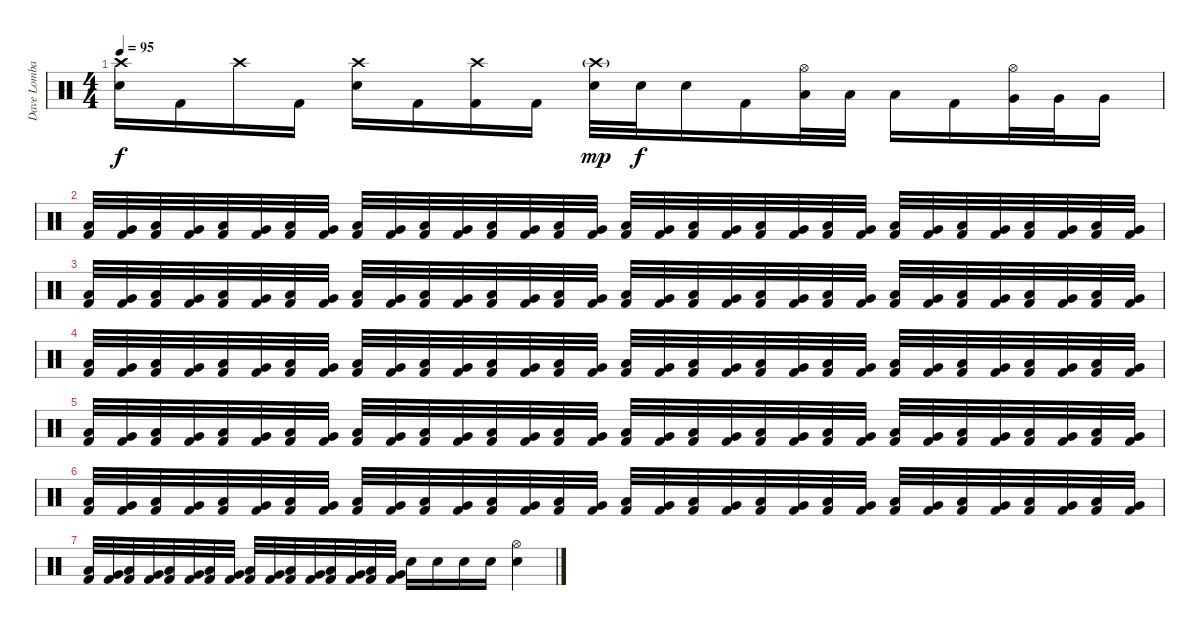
\track ("Dave Lombardo" "Dave Lomba") {instrument percussion}
\staff {score}
\articulation defaults
\ts (4 4)
\tempo 95
\clef neutral
\ks c
("Crash high (hit)" "Snare (hit) 2").16{dy f} "Kick (hit) 2".16 "Crash high (hit)".16 "Kick (hit) 2".16 ("Crash high (hit)" "Snare (hit) 2").16 "Kick (hit) 2".16 ("Crash high (hit)" "Kick (hit) 2").16 "Kick (hit) 2".16 ("Crash high (hit)"{g} "Snare (hit) 2").32{dy mp} "Snare (hit) 2".32{dy f} "Snare (hit) 2".16 "Kick (hit) 2".16 ("Hi-Hat (open)" "Low Tom (hit)").32 "Low Tom (hit)".32 "Low Tom (hit)".16 "Kick (hit) 2".16 ("Hi-Hat (open)" "Very Low Tom (hit)").32 "Very Low Tom (hit)".32 "Very Low Tom (hit)".16 |
("Low Tom (hit)" "Kick (hit) 2").32 ("Very Low Tom (hit)" "Kick (hit) 2").32 ("Low Tom (hit)" "Kick (hit) 2").32 ("Very Low Tom (hit)" "Kick (hit) 2").32 ("Low Tom (hit)" "Kick (hit) 2").32 ("Very Low Tom (hit)" "Kick (hit) 2").32 ("Low Tom (hit)" "Kick (hit) 2").32 ("Very Low Tom (hit)" "Kick (hit) 2").32 ("Low Tom (hit)" "Kick (hit) 2").32 ("Very Low Tom (hit)" "Kick (hit) 2").32 ("Low Tom (hit)" "Kick (hit) 2").32 ("Very Low Tom (hit)" "Kick (hit) 2").32 ("Low Tom (hit)" "Kick (hit) 2").32 ("Very Low Tom (hit)" "Kick (hit) 2").32 ("Low Tom (hit)" "Kick (hit) 2").32 ("Very Low Tom (hit)" "Kick (hit) 2").32 ("Low Tom (hit)" "Kick (hit) 2").32 ("Very Low Tom (hit)" "Kick (hit) 2").32 ("Low Tom (hit)" "Kick (hit) 2").32 ("Very Low Tom (hit)" "Kick (hit) 2").32 ("Low Tom (hit)" "Kick (hit) 2").32 ("Very Low Tom (hit)" "Kick (hit) 2").32 ("Low Tom (hit)" "Kick (hit) 2").32 ("Very Low Tom (hit)" "Kick (hit) 2").32 ("Low Tom (hit)" "Kick (hit) 2").32 ("Very Low Tom (hit)" "Kick (hit) 2").32 ("Low Tom (hit)" "Kick (hit) 2").32 ("Very Low Tom (hit)" "Kick (hit) 2").32 ("Low Tom (hit)" "Kick (hit) 2").32 ("Very Low Tom (hit)" "Kick (hit) 2").32 ("Low Tom (hit)" "Kick (hit) 2").32 ("Very Low Tom (hit)" "Kick (hit) 2").32 |
("Low Tom (hit)" "Kick (hit) 2").32 ("Very Low Tom (hit)" "Kick (hit) 2").32 ("Low Tom (hit)" "Kick (hit) 2").32 ("Very Low Tom (hit)" "Kick (hit) 2").32 ("Low Tom (hit)" "Kick (hit) 2").32 ("Very Low Tom (hit)" "Kick (hit) 2").32 ("Low Tom (hit)" "Kick (hit) 2").32 ("Very Low Tom (hit)" "Kick (hit) 2").32 ("Low Tom (hit)" "Kick (hit) 2").32 ("Very Low Tom (hit)" "Kick (hit) 2").32 ("Low Tom (hit)" "Kick (hit) 2").32 ("Very Low Tom (hit)" "Kick (hit) 2").32 ("Low Tom (hit)" "Kick (hit) 2").32 ("Very Low Tom (hit)" "Kick (hit) 2").32 ("Low Tom (hit)" "Kick (hit) 2").32 ("Very Low Tom (hit)" "Kick (hit) 2").32 ("Low Tom (hit)" "Kick (hit) 2").32 ("Very Low Tom (hit)" "Kick (hit) 2").32 ("Low Tom (hit)" "Kick (hit) 2").32 ("Very Low Tom (hit)" "Kick (hit) 2").32 ("Low Tom (hit)" "Kick (hit) 2").32 ("Very Low Tom (hit)" "Kick (hit) 2").32 ("Low Tom (hit)" "Kick (hit) 2").32 ("Very Low Tom (hit)" "Kick (hit) 2").32 ("Low Tom (hit)" "Kick (hit) 2").32 ("Very Low Tom (hit)" "Kick (hit) 2").32 ("Low Tom (hit)" "Kick (hit) 2").32 ("Very Low Tom (hit)" "Kick (hit) 2").32 ("Low Tom (hit)" "Kick (hit) 2").32 ("Very Low Tom (hit)" "Kick (hit) 2").32 ("Low Tom (hit)" "Kick (hit) 2").32 ("Very Low Tom (hit)" "Kick (hit) 2").32 |
("Low Tom (hit)" "Kick (hit) 2").32 ("Very Low Tom (hit)" "Kick (hit) 2").32 ("Low Tom (hit)" "Kick (hit) 2").32 ("Very Low Tom (hit)" "Kick (hit) 2").32 ("Low Tom (hit)" "Kick (hit) 2").32 ("Very Low Tom (hit)" "Kick (hit) 2").32 ("Low Tom (hit)" "Kick (hit) 2").32 ("Very Low Tom (hit)" "Kick (hit) 2").32 ("Low Tom (hit)" "Kick (hit) 2").32 ("Very Low Tom (hit)" "Kick (hit) 2").32 ("Low Tom (hit)" "Kick (hit) 2").32 ("Very Low Tom (hit)" "Kick (hit) 2").32 ("Low Tom (hit)" "Kick (hit) 2").32 ("Very Low Tom (hit)" "Kick (hit) 2").32 ("Low Tom (hit)" "Kick (hit) 2").32 ("Very Low Tom (hit)" "Kick (hit) 2").32 ("Low Tom (hit)" "Kick (hit) 2").32 ("Very Low Tom (hit)" "Kick (hit) 2").32 ("Low Tom (hit)" "Kick (hit) 2").32 ("Very Low Tom (hit)" "Kick (hit) 2").32 ("Low Tom (hit)" "Kick (hit) 2").32 ("Very Low Tom (hit)" "Kick (hit) 2").32 ("Low Tom (hit)" "Kick (hit) 2").32 ("Very Low Tom (hit)" "Kick (hit) 2").32 ("Low Tom (hit)" "Kick (hit) 2").32 ("Very Low Tom (hit)" "Kick (hit) 2").32 ("Low Tom (hit)" "Kick (hit) 2").32 ("Very Low Tom (hit)" "Kick (hit) 2").32 ("Low Tom (hit)" "Kick (hit) 2").32 ("Very Low Tom (hit)" "Kick (hit) 2").32 ("Low Tom (hit)" "Kick (hit) 2").32 ("Very Low Tom (hit)" "Kick (hit) 2").32 |
("Low Tom (hit)" "Kick (hit) 2").32 ("Very Low Tom (hit)" "Kick (hit) 2").32 ("Low Tom (hit)" "Kick (hit) 2").32 ("Very Low Tom (hit)" "Kick (hit) 2").32 ("Low Tom (hit)" "Kick (hit) 2").32 ("Very Low Tom (hit)" "Kick (hit) 2").32 ("Low Tom (hit)" "Kick (hit) 2").32 ("Very Low Tom (hit)" "Kick (hit) 2").32 ("Low Tom (hit)" "Kick (hit) 2").32 ("Very Low Tom (hit)" "Kick (hit) 2").32 ("Low Tom (hit)" "Kick (hit) 2").32 ("Very Low Tom (hit)" "Kick (hit) 2").32 ("Low Tom (hit)" "Kick (hit) 2").32 ("Very Low Tom (hit)" "Kick (hit) 2").32 ("Low Tom (hit)" "Kick (hit) 2").32 ("Very Low Tom (hit)" "Kick (hit) 2").32 ("Low Tom (hit)" "Kick (hit) 2").32 ("Very Low Tom (hit)" "Kick (hit) 2").32 ("Low Tom (hit)" "Kick (hit) 2").32 ("Very Low Tom (hit)" "Kick (hit) 2").32 ("Low Tom (hit)" "Kick (hit) 2").32 ("Very Low Tom (hit)" "Kick (hit) 2").32 ("Low Tom (hit)" "Kick (hit) 2").32 ("Very Low Tom (hit)" "Kick (hit) 2").32 ("Low Tom (hit)" "Kick (hit) 2").32 ("Very Low Tom (hit)" "Kick (hit) 2").32 ("Low Tom (hit)" "Kick (hit) 2").32 ("Very Low Tom (hit)" "Kick (hit) 2").32 ("Low Tom (hit)" "Kick (hit) 2").32 ("Very Low Tom (hit)" "Kick (hit) 2").32 ("Low Tom (hit)" "Kick (hit) 2").32 ("Very Low Tom (hit)" "Kick (hit) 2").32 |
("Low Tom (hit)" "Kick (hit) 2").32 ("Very Low Tom (hit)" "Kick (hit) 2").32 ("Low Tom (hit)" "Kick (hit) 2").32 ("Very Low Tom (hit)" "Kick (hit) 2").32 ("Low Tom (hit)" "Kick (hit) 2").32 ("Very Low Tom (hit)" "Kick (hit) 2").32 ("Low Tom (hit)" "Kick (hit) 2").32 ("Very Low Tom (hit)" "Kick (hit) 2").32 ("Low Tom (hit)" "Kick (hit) 2").32 ("Very Low Tom (hit)" "Kick (hit) 2").32 ("Low Tom (hit)" "Kick (hit) 2").32 ("Very Low Tom (hit)" "Kick (hit) 2").32 ("Low Tom (hit)" "Kick (hit) 2").32 ("Very Low Tom (hit)" "Kick (hit) 2").32 ("Low Tom (hit)" "Kick (hit) 2").32 ("Very Low Tom (hit)" "Kick (hit) 2").32 ("Low Tom (hit)" "Kick (hit) 2").32 ("Very Low Tom (hit)" "Kick (hit) 2").32 ("Low Tom (hit)" "Kick (hit) 2").32 ("Very Low Tom (hit)" "Kick (hit) 2").32 ("Low Tom (hit)" "Kick (hit) 2").32 ("Very Low Tom (hit)" "Kick (hit) 2").32 ("Low Tom (hit)" "Kick (hit) 2").32 ("Very Low Tom (hit)" "Kick (hit) 2").32 ("Low Tom (hit)" "Kick (hit) 2").32 ("Very Low Tom (hit)" "Kick (hit) 2").32 ("Low Tom (hit)" "Kick (hit) 2").32 ("Very Low Tom (hit)" "Kick (hit) 2").32 ("Low Tom (hit)" "Kick (hit) 2").32 ("Very Low Tom (hit)" "Kick (hit) 2").32 ("Low Tom (hit)" "Kick (hit) 2").32 ("Very Low Tom (hit)" "Kick (hit) 2").32 |
("Low Tom (hit)" "Kick (hit) 2").32 ("Very Low Tom (hit)" "Kick (hit) 2").32 ("Low Tom (hit)" "Kick (hit) 2").32 ("Very Low Tom (hit)" "Kick (hit) 2").32 ("Low Tom (hit)" "Kick (hit) 2").32 ("Very Low Tom (hit)" "Kick (hit) 2").32 ("Low Tom (hit)" "Kick (hit) 2").32 ("Very Low Tom (hit)" "Kick (hit) 2").32 ("Low Tom (hit)" "Kick (hit) 2").32 ("Very Low Tom (hit)" "Kick (hit) 2").32 ("Low Tom (hit)" "Kick (hit) 2").32 ("Very Low Tom (hit)" "Kick (hit) 2").32 ("Low Tom (hit)" "Kick (hit) 2").32 ("Very Low Tom (hit)" "Kick (hit) 2").32 ("Low Tom (hit)" "Kick (hit) 2").32 ("Very Low Tom (hit)" "Kick (hit) 2").32 "Snare (hit) 2".16 "Snare (hit) 2".16 "Snare (hit) 2".16 "Snare (hit) 2".16 ("Hi-Hat (open)" "Snare (hit) 2").4
